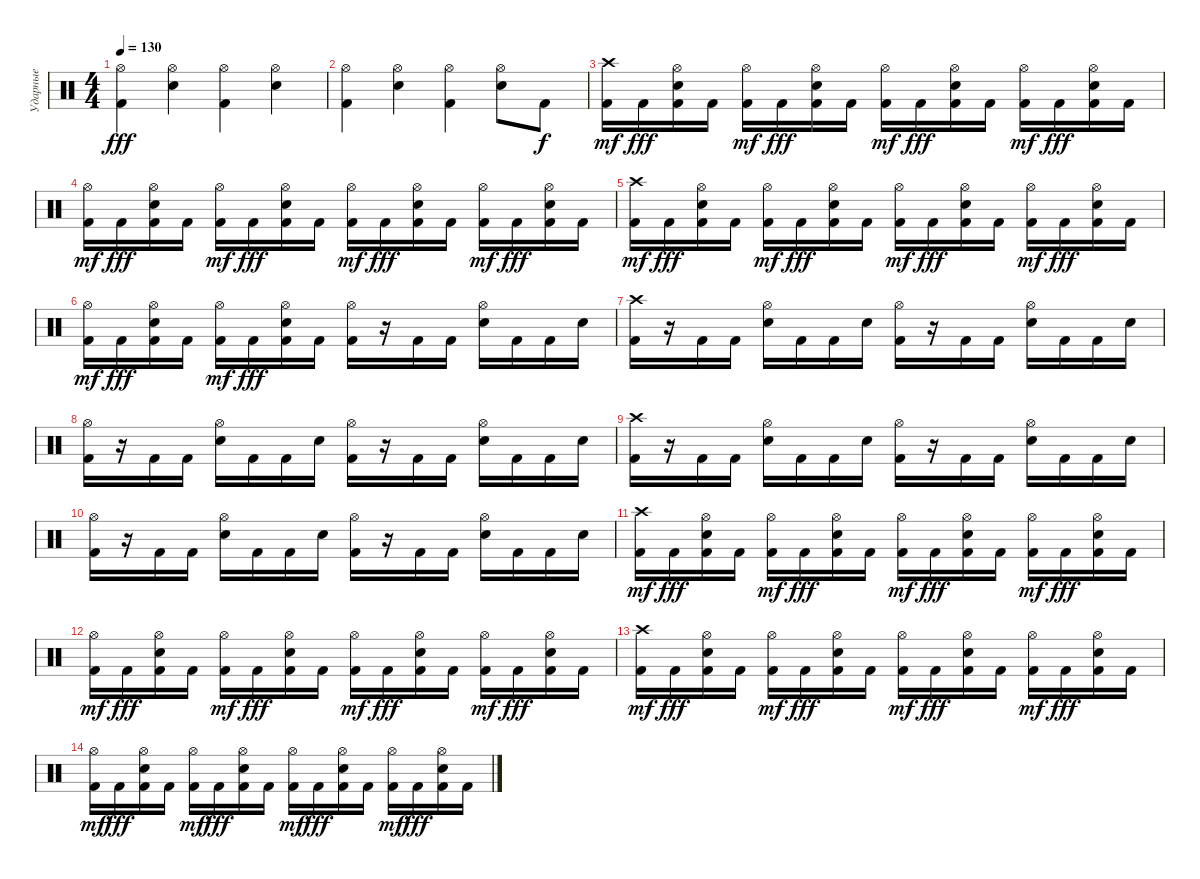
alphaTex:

\track ("Ударные" "Ударные") {instrument percussion}
\staff {score}
\articulation defaults
\ts (4 4)
\tempo 130
\clef neutral
\ks c
("Hi-Hat (open)" "Kick (hit) 2").4{dy fff} ("Hi-Hat (open)" "Snare (hit) 2").4 ("Hi-Hat (open)" "Kick (hit) 2").4 ("Hi-Hat (open)" "Snare (hit) 2").4 |
("Hi-Hat (open)" "Kick (hit) 2").4 ("Hi-Hat (open)" "Snare (hit) 2").4 ("Hi-Hat (open)" "Kick (hit) 2").4 ("Hi-Hat (open)" "Snare (hit) 2").8 "Kick (hit) 2".8{dy f} |
("Kick (hit) 2" "Crash high (hit)").16{dy mf} "Kick (hit) 2".16{dy fff} ("Kick (hit) 2" "Hi-Hat (open)" "Snare (hit) 2").16 "Kick (hit) 2".16 ("Kick (hit) 2" "Hi-Hat (open)").16{dy mf} "Kick (hit) 2".16{dy fff} ("Kick (hit) 2" "Hi-Hat (open)" "Snare (hit) 2").16 "Kick (hit) 2".16 ("Kick (hit) 2" "Hi-Hat (open)").16{dy mf} "Kick (hit) 2".16{dy fff} ("Kick (hit) 2" "Hi-Hat (open)" "Snare (hit) 2").16 "Kick (hit) 2".16 ("Kick (hit) 2" "Hi-Hat (open)").16{dy mf} "Kick (hit) 2".16{dy fff} ("Kick (hit) 2" "Hi-Hat (open)" "Snare (hit) 2").16 "Kick (hit) 2".16 |
("Kick (hit) 2" "Hi-Hat (open)").16{dy mf} "Kick (hit) 2".16{dy fff} ("Kick (hit) 2" "Hi-Hat (open)" "Snare (hit) 2").16 "Kick (hit) 2".16 ("Kick (hit) 2" "Hi-Hat (open)").16{dy mf} "Kick (hit) 2".16{dy fff} ("Kick (hit) 2" "Hi-Hat (open)" "Snare (hit) 2").16 "Kick (hit) 2".16 ("Kick (hit) 2" "Hi-Hat (open)").16{dy mf} "Kick (hit) 2".16{dy fff} ("Kick (hit) 2" "Hi-Hat (open)" "Snare (hit) 2").16 "Kick (hit) 2".16 ("Kick (hit) 2" "Hi-Hat (open)").16{dy mf} "Kick (hit) 2".16{dy fff} ("Kick (hit) 2" "Hi-Hat (open)" "Snare (hit) 2").16 "Kick (hit) 2".16 |
("Kick (hit) 2" "Crash high (hit)").16{dy mf} "Kick (hit) 2".16{dy fff} ("Kick (hit) 2" "Hi-Hat (open)" "Snare (hit) 2").16 "Kick (hit) 2".16 ("Kick (hit) 2" "Hi-Hat (open)").16{dy mf} "Kick (hit) 2".16{dy fff} ("Kick (hit) 2" "Hi-Hat (open)" "Snare (hit) 2").16 "Kick (hit) 2".16 ("Kick (hit) 2" "Hi-Hat (open)").16{dy mf} "Kick (hit) 2".16{dy fff} ("Kick (hit) 2" "Hi-Hat (open)" "Snare (hit) 2").16 "Kick (hit) 2".16 ("Kick (hit) 2" "Hi-Hat (open)").16{dy mf} "Kick (hit) 2".16{dy fff} ("Kick (hit) 2" "Hi-Hat (open)" "Snare (hit) 2").16 "Kick (hit) 2".16 |
("Kick (hit) 2" "Hi-Hat (open)").16{dy mf} "Kick (hit) 2".16{dy fff} ("Kick (hit) 2" "Hi-Hat (open)" "Snare (hit) 2").16 "Kick (hit) 2".16 ("Kick (hit) 2" "Hi-Hat (open)").16{dy mf} "Kick (hit) 2".16{dy fff} ("Kick (hit) 2" "Hi-Hat (open)" "Snare (hit) 2").16 "Kick (hit) 2".16 ("Kick (hit) 2" "Hi-Hat (open)").16 r.16 "Kick (hit) 2".16 "Kick (hit) 2".16 ("Snare (hit) 2" "Hi-Hat (open)").16 "Kick (hit) 2".16 "Kick (hit) 2".16 "Snare (hit) 2".16 |
("Kick (hit) 2" "Crash high (hit)").16 r.16 "Kick (hit) 2".16 "Kick (hit) 2".16 ("Snare (hit) 2" "Hi-Hat (open)").16 "Kick (hit) 2".16 "Kick (hit) 2".16 "Snare (hit) 2".16 ("Kick (hit) 2" "Hi-Hat (open)").16 r.16 "Kick (hit) 2".16 "Kick (hit) 2".16 ("Snare (hit) 2" "Hi-Hat (open)").16 "Kick (hit) 2".16 "Kick (hit) 2".16 "Snare (hit) 2".16 |
("Kick (hit) 2" "Hi-Hat (open)").16 r.16 "Kick (hit) 2".16 "Kick (hit) 2".16 ("Snare (hit) 2" "Hi-Hat (open)").16 "Kick (hit) 2".16 "Kick (hit) 2".16 "Snare (hit) 2".16 ("Kick (hit) 2" "Hi-Hat (open)").16 r.16 "Kick (hit) 2".16 "Kick (hit) 2".16 ("Snare (hit) 2" "Hi-Hat (open)").16 "Kick (hit) 2".16 "Kick (hit) 2".16 "Snare (hit) 2".16 |
("Kick (hit) 2" "Crash high (hit)").16 r.16 "Kick (hit) 2".16 "Kick (hit) 2".16 ("Snare (hit) 2" "Hi-Hat (open)").16 "Kick (hit) 2".16 "Kick (hit) 2".16 "Snare (hit) 2".16 ("Kick (hit) 2" "Hi-Hat (open)").16 r.16 "Kick (hit) 2".16 "Kick (hit) 2".16 ("Snare (hit) 2" "Hi-Hat (open)").16 "Kick (hit) 2".16 "Kick (hit) 2".16 "Snare (hit) 2".16 |
("Kick (hit) 2" "Hi-Hat (open)").16 r.16 "Kick (hit) 2".16 "Kick (hit) 2".16 ("Snare (hit) 2" "Hi-Hat (open)").16 "Kick (hit) 2".16 "Kick (hit) 2".16 "Snare (hit) 2".16 ("Kick (hit) 2" "Hi-Hat (open)").16 r.16 "Kick (hit) 2".16 "Kick (hit) 2".16 ("Snare (hit) 2" "Hi-Hat (open)").16 "Kick (hit) 2".16 "Kick (hit) 2".16 "Snare (hit) 2".16 |
("Kick (hit) 2" "Crash high (hit)").16{dy mf} "Kick (hit) 2".16{dy fff} ("Kick (hit) 2" "Hi-Hat (open)" "Snare (hit) 2").16 "Kick (hit) 2".16 ("Kick (hit) 2" "Hi-Hat (open)").16{dy mf} "Kick (hit) 2".16{dy fff} ("Kick (hit) 2" "Hi-Hat (open)" "Snare (hit) 2").16 "Kick (hit) 2".16 ("Kick (hit) 2" "Hi-Hat (open)").16{dy mf} "Kick (hit) 2".16{dy fff} ("Kick (hit) 2" "Hi-Hat (open)" "Snare (hit) 2").16 "Kick (hit) 2".16 ("Kick (hit) 2" "Hi-Hat (open)").16{dy mf} "Kick (hit) 2".16{dy fff} ("Kick (hit) 2" "Hi-Hat (open)" "Snare (hit) 2").16 "Kick (hit) 2".16 |
("Kick (hit) 2" "Hi-Hat (open)").16{dy mf} "Kick (hit) 2".16{dy fff} ("Kick (hit) 2" "Hi-Hat (open)" "Snare (hit) 2").16 "Kick (hit) 2".16 ("Kick (hit) 2" "Hi-Hat (open)").16{dy mf} "Kick (hit) 2".16{dy fff} ("Kick (hit) 2" "Hi-Hat (open)" "Snare (hit) 2").16 "Kick (hit) 2".16 ("Kick (hit) 2" "Hi-Hat (open)").16{dy mf} "Kick (hit) 2".16{dy fff} ("Kick (hit) 2" "Hi-Hat (open)" "Snare (hit) 2").16 "Kick (hit) 2".16 ("Kick (hit) 2" "Hi-Hat (open)").16{dy mf} "Kick (hit) 2".16{dy fff} ("Kick (hit) 2" "Hi-Hat (open)" "Snare (hit) 2").16 "Kick (hit) 2".16 |
("Kick (hit) 2" "Crash high (hit)").16{dy mf} "Kick (hit) 2".16{dy fff} ("Kick (hit) 2" "Hi-Hat (open)" "Snare (hit) 2").16 "Kick (hit) 2".16 ("Kick (hit) 2" "Hi-Hat (open)").16{dy mf} "Kick (hit) 2".16{dy fff} ("Kick (hit) 2" "Hi-Hat (open)" "Snare (hit) 2").16 "Kick (hit) 2".16 ("Kick (hit) 2" "Hi-Hat (open)").16{dy mf} "Kick (hit) 2".16{dy fff} ("Kick (hit) 2" "Hi-Hat (open)" "Snare (hit) 2").16 "Kick (hit) 2".16 ("Kick (hit) 2" "Hi-Hat (open)").16{dy mf} "Kick (hit) 2".16{dy fff} ("Kick (hit) 2" "Hi-Hat (open)" "Snare (hit) 2").16 "Kick (hit) 2".16 |
("Kick (hit) 2" "Hi-Hat (open)").16{dy mf} "Kick (hit) 2".16{dy fff} ("Kick (hit) 2" "Hi-Hat (open)" "Snare (hit) 2").16 "Kick (hit) 2".16 ("Kick (hit) 2" "Hi-Hat (open)").16{dy mf} "Kick (hit) 2".16{dy fff} ("Kick (hit) 2" "Hi-Hat (open)" "Snare (hit) 2").16 "Kick (hit) 2".16 ("Kick (hit) 2" "Hi-Hat (open)").16{dy mf} "Kick (hit) 2".16{dy fff} ("Kick (hit) 2" "Hi-Hat (open)" "Snare (hit) 2").16 "Kick (hit) 2".16 ("Kick (hit) 2" "Hi-Hat (open)").16{dy mf} "Kick (hit) 2".16{dy fff} ("Kick (hit) 2" "Hi-Hat (open)" "Snare (hit) 2").16 "Kick (hit) 2".16
